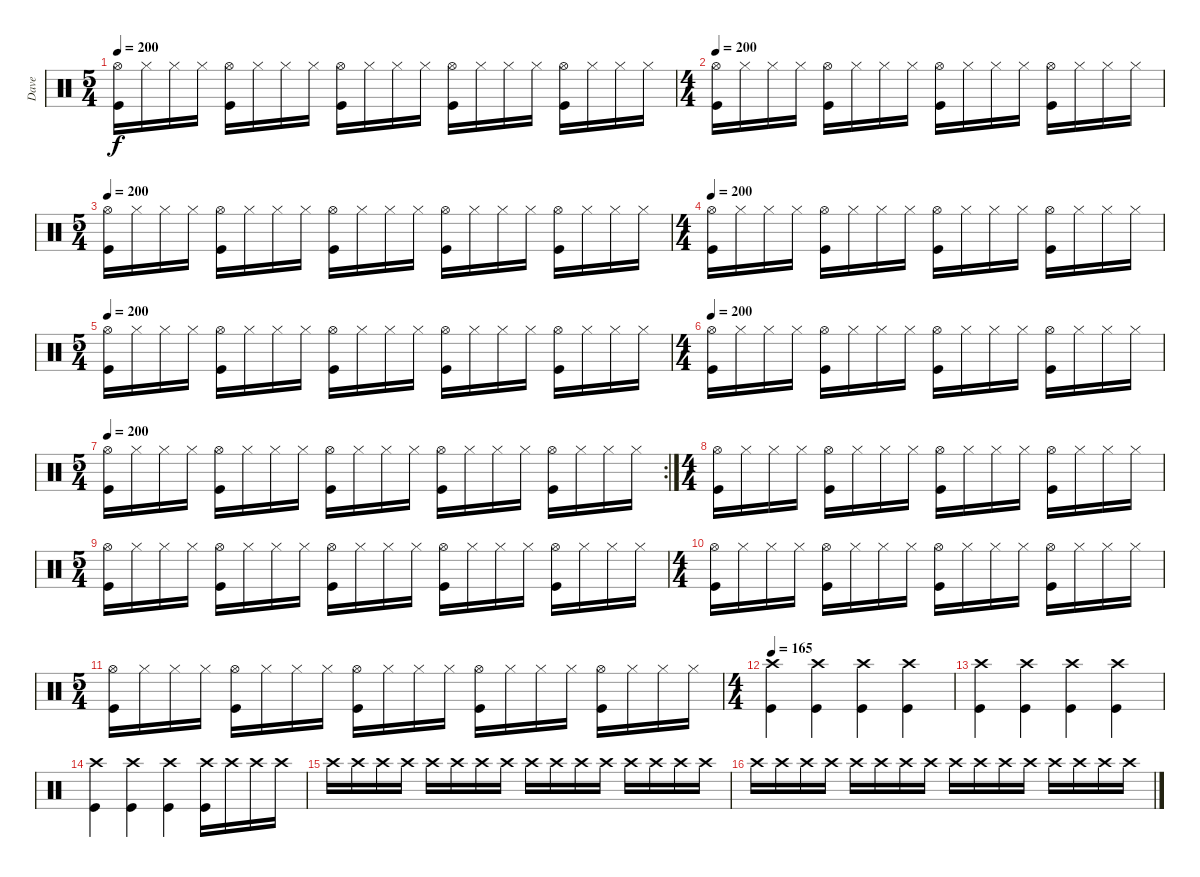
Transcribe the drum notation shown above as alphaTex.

\track ("Dave" "Dave") {instrument percussion}
\staff {score}
\articulation defaults
\ts (5 4)
\tempo 200
\clef neutral
\ks c
("Hi-Hat (open)" "Kick (hit)").16{dy f} "Hi-Hat (closed)".16 "Hi-Hat (closed)".16 "Hi-Hat (closed)".16 ("Hi-Hat (open)" "Kick (hit)").16 "Hi-Hat (closed)".16 "Hi-Hat (closed)".16 "Hi-Hat (closed)".16 ("Hi-Hat (open)" "Kick (hit)").16 "Hi-Hat (closed)".16 "Hi-Hat (closed)".16 "Hi-Hat (closed)".16 ("Hi-Hat (open)" "Kick (hit)").16 "Hi-Hat (closed)".16 "Hi-Hat (closed)".16 "Hi-Hat (closed)".16 ("Hi-Hat (open)" "Kick (hit)").16 "Hi-Hat (closed)".16 "Hi-Hat (closed)".16 "Hi-Hat (closed)".16 |
\ts (4 4)
\tempo 200
("Hi-Hat (open)" "Kick (hit)").16 "Hi-Hat (closed)".16 "Hi-Hat (closed)".16 "Hi-Hat (closed)".16 ("Hi-Hat (open)" "Kick (hit)").16 "Hi-Hat (closed)".16 "Hi-Hat (closed)".16 "Hi-Hat (closed)".16 ("Hi-Hat (open)" "Kick (hit)").16 "Hi-Hat (closed)".16 "Hi-Hat (closed)".16 "Hi-Hat (closed)".16 ("Hi-Hat (open)" "Kick (hit)").16 "Hi-Hat (closed)".16 "Hi-Hat (closed)".16 "Hi-Hat (closed)".16 |
\ts (5 4)
\tempo 200
("Hi-Hat (open)" "Kick (hit)").16 "Hi-Hat (closed)".16 "Hi-Hat (closed)".16 "Hi-Hat (closed)".16 ("Hi-Hat (open)" "Kick (hit)").16 "Hi-Hat (closed)".16 "Hi-Hat (closed)".16 "Hi-Hat (closed)".16 ("Hi-Hat (open)" "Kick (hit)").16 "Hi-Hat (closed)".16 "Hi-Hat (closed)".16 "Hi-Hat (closed)".16 ("Hi-Hat (open)" "Kick (hit)").16 "Hi-Hat (closed)".16 "Hi-Hat (closed)".16 "Hi-Hat (closed)".16 ("Hi-Hat (open)" "Kick (hit)").16 "Hi-Hat (closed)".16 "Hi-Hat (closed)".16 "Hi-Hat (closed)".16 |
\ts (4 4)
\tempo 200
("Hi-Hat (open)" "Kick (hit)").16 "Hi-Hat (closed)".16 "Hi-Hat (closed)".16 "Hi-Hat (closed)".16 ("Hi-Hat (open)" "Kick (hit)").16 "Hi-Hat (closed)".16 "Hi-Hat (closed)".16 "Hi-Hat (closed)".16 ("Hi-Hat (open)" "Kick (hit)").16 "Hi-Hat (closed)".16 "Hi-Hat (closed)".16 "Hi-Hat (closed)".16 ("Hi-Hat (open)" "Kick (hit)").16 "Hi-Hat (closed)".16 "Hi-Hat (closed)".16 "Hi-Hat (closed)".16 |
\ts (5 4)
\tempo 200
("Hi-Hat (open)" "Kick (hit)").16 "Hi-Hat (closed)".16 "Hi-Hat (closed)".16 "Hi-Hat (closed)".16 ("Hi-Hat (open)" "Kick (hit)").16 "Hi-Hat (closed)".16 "Hi-Hat (closed)".16 "Hi-Hat (closed)".16 ("Hi-Hat (open)" "Kick (hit)").16 "Hi-Hat (closed)".16 "Hi-Hat (closed)".16 "Hi-Hat (closed)".16 ("Hi-Hat (open)" "Kick (hit)").16 "Hi-Hat (closed)".16 "Hi-Hat (closed)".16 "Hi-Hat (closed)".16 ("Hi-Hat (open)" "Kick (hit)").16 "Hi-Hat (closed)".16 "Hi-Hat (closed)".16 "Hi-Hat (closed)".16 |
\ts (4 4)
\tempo 200
("Hi-Hat (open)" "Kick (hit)").16 "Hi-Hat (closed)".16 "Hi-Hat (closed)".16 "Hi-Hat (closed)".16 ("Hi-Hat (open)" "Kick (hit)").16 "Hi-Hat (closed)".16 "Hi-Hat (closed)".16 "Hi-Hat (closed)".16 ("Hi-Hat (open)" "Kick (hit)").16 "Hi-Hat (closed)".16 "Hi-Hat (closed)".16 "Hi-Hat (closed)".16 ("Hi-Hat (open)" "Kick (hit)").16 "Hi-Hat (closed)".16 "Hi-Hat (closed)".16 "Hi-Hat (closed)".16 |
\rc 2
\ts (5 4)
\tempo 200
("Hi-Hat (open)" "Kick (hit)").16 "Hi-Hat (closed)".16 "Hi-Hat (closed)".16 "Hi-Hat (closed)".16 ("Hi-Hat (open)" "Kick (hit)").16 "Hi-Hat (closed)".16 "Hi-Hat (closed)".16 "Hi-Hat (closed)".16 ("Hi-Hat (open)" "Kick (hit)").16 "Hi-Hat (closed)".16 "Hi-Hat (closed)".16 "Hi-Hat (closed)".16 ("Hi-Hat (open)" "Kick (hit)").16 "Hi-Hat (closed)".16 "Hi-Hat (closed)".16 "Hi-Hat (closed)".16 ("Hi-Hat (open)" "Kick (hit)").16 "Hi-Hat (closed)".16 "Hi-Hat (closed)".16 "Hi-Hat (closed)".16 |
\ts (4 4)
("Hi-Hat (open)" "Kick (hit)").16 "Hi-Hat (closed)".16 "Hi-Hat (closed)".16 "Hi-Hat (closed)".16 ("Hi-Hat (open)" "Kick (hit)").16 "Hi-Hat (closed)".16 "Hi-Hat (closed)".16 "Hi-Hat (closed)".16 ("Hi-Hat (open)" "Kick (hit)").16 "Hi-Hat (closed)".16 "Hi-Hat (closed)".16 "Hi-Hat (closed)".16 ("Hi-Hat (open)" "Kick (hit)").16 "Hi-Hat (closed)".16 "Hi-Hat (closed)".16 "Hi-Hat (closed)".16 |
\ts (5 4)
("Hi-Hat (open)" "Kick (hit)").16 "Hi-Hat (closed)".16 "Hi-Hat (closed)".16 "Hi-Hat (closed)".16 ("Hi-Hat (open)" "Kick (hit)").16 "Hi-Hat (closed)".16 "Hi-Hat (closed)".16 "Hi-Hat (closed)".16 ("Hi-Hat (open)" "Kick (hit)").16 "Hi-Hat (closed)".16 "Hi-Hat (closed)".16 "Hi-Hat (closed)".16 ("Hi-Hat (open)" "Kick (hit)").16 "Hi-Hat (closed)".16 "Hi-Hat (closed)".16 "Hi-Hat (closed)".16 ("Hi-Hat (open)" "Kick (hit)").16 "Hi-Hat (closed)".16 "Hi-Hat (closed)".16 "Hi-Hat (closed)".16 |
\ts (4 4)
("Hi-Hat (open)" "Kick (hit)").16 "Hi-Hat (closed)".16 "Hi-Hat (closed)".16 "Hi-Hat (closed)".16 ("Hi-Hat (open)" "Kick (hit)").16 "Hi-Hat (closed)".16 "Hi-Hat (closed)".16 "Hi-Hat (closed)".16 ("Hi-Hat (open)" "Kick (hit)").16 "Hi-Hat (closed)".16 "Hi-Hat (closed)".16 "Hi-Hat (closed)".16 ("Hi-Hat (open)" "Kick (hit)").16 "Hi-Hat (closed)".16 "Hi-Hat (closed)".16 "Hi-Hat (closed)".16 |
\ts (5 4)
("Hi-Hat (open)" "Kick (hit)").16 "Hi-Hat (closed)".16 "Hi-Hat (closed)".16 "Hi-Hat (closed)".16 ("Hi-Hat (open)" "Kick (hit)").16 "Hi-Hat (closed)".16 "Hi-Hat (closed)".16 "Hi-Hat (closed)".16 ("Hi-Hat (open)" "Kick (hit)").16 "Hi-Hat (closed)".16 "Hi-Hat (closed)".16 "Hi-Hat (closed)".16 ("Hi-Hat (open)" "Kick (hit)").16 "Hi-Hat (closed)".16 "Hi-Hat (closed)".16 "Hi-Hat (closed)".16 ("Hi-Hat (open)" "Kick (hit)").16 "Hi-Hat (closed)".16 "Hi-Hat (closed)".16 "Hi-Hat (closed)".16 |
\ts (4 4)
\tempo 165
("Crash high (hit)" "Kick (hit)").4 ("Crash high (hit)" "Kick (hit)").4 ("Crash high (hit)" "Kick (hit)").4 ("Crash high (hit)" "Kick (hit)").4 |
("Crash high (hit)" "Kick (hit)").4 ("Crash high (hit)" "Kick (hit)").4 ("Crash high (hit)" "Kick (hit)").4 ("Crash high (hit)" "Kick (hit)").4 |
("Crash high (hit)" "Kick (hit)").4 ("Crash high (hit)" "Kick (hit)").4 ("Crash high (hit)" "Kick (hit)").4 ("Crash high (hit)" "Kick (hit)").16 "Crash high (hit)".16 "Crash high (hit)".16 "Crash high (hit)".16 |
"Crash high (hit)".16 "Crash high (hit)".16 "Crash high (hit)".16 "Crash high (hit)".16 "Crash high (hit)".16 "Crash high (hit)".16 "Crash high (hit)".16 "Crash high (hit)".16 "Crash high (hit)".16 "Crash high (hit)".16 "Crash high (hit)".16 "Crash high (hit)".16 "Crash high (hit)".16 "Crash high (hit)".16 "Crash high (hit)".16 "Crash high (hit)".16 |
"Crash high (hit)".16 "Crash high (hit)".16 "Crash high (hit)".16 "Crash high (hit)".16 "Crash high (hit)".16 "Crash high (hit)".16 "Crash high (hit)".16 "Crash high (hit)".16 "Crash high (hit)".16 "Crash high (hit)".16 "Crash high (hit)".16 "Crash high (hit)".16 "Crash high (hit)".16 "Crash high (hit)".16 "Crash high (hit)".16 "Crash high (hit)".16
